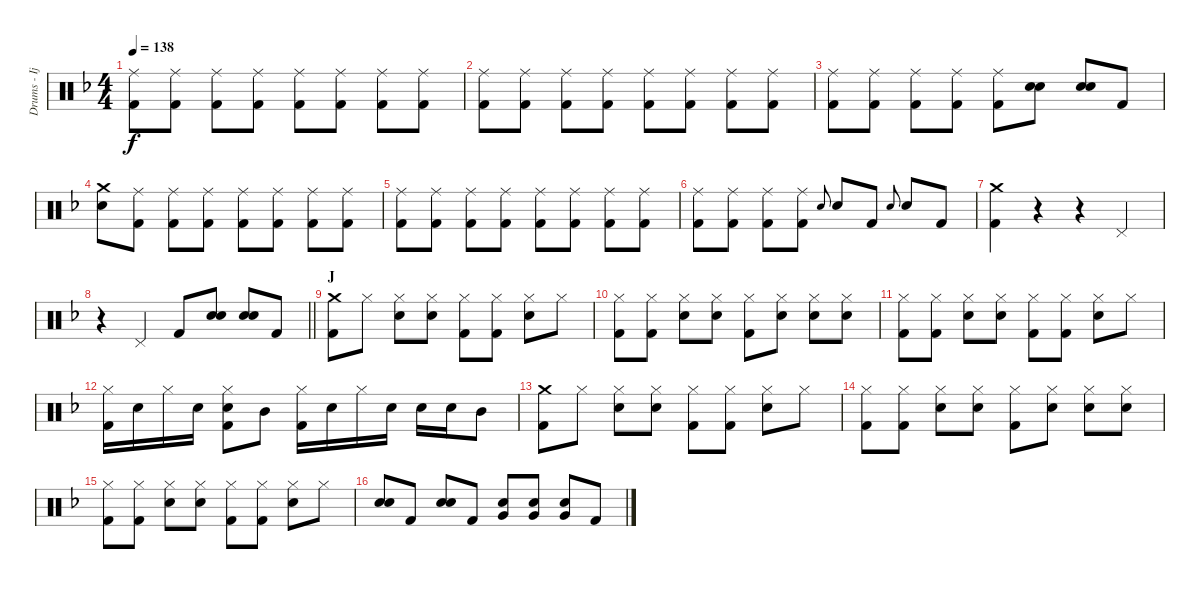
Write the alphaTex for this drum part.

\track ("Drums - Ijichi" "Drums - Ij") {instrument percussion}
\staff {score}
\articulation defaults
\ts (4 4)
\tempo 138
\clef neutral
\ks f
("Ride (middle)" "Kick (hit) 2").8{dy f} ("Ride (middle)" "Kick (hit) 2").8 ("Ride (middle)" "Kick (hit) 2").8 ("Ride (middle)" "Kick (hit) 2").8 ("Ride (middle)" "Kick (hit) 2").8 ("Ride (middle)" "Kick (hit) 2").8 ("Ride (middle)" "Kick (hit) 2").8 ("Ride (middle)" "Kick (hit) 2").8 |
("Ride (middle)" "Kick (hit) 2").8 ("Ride (middle)" "Kick (hit) 2").8 ("Ride (middle)" "Kick (hit) 2").8 ("Ride (middle)" "Kick (hit) 2").8 ("Ride (middle)" "Kick (hit) 2").8 ("Ride (middle)" "Kick (hit) 2").8 ("Ride (middle)" "Kick (hit) 2").8 ("Ride (middle)" "Kick (hit) 2").8 |
("Ride (middle)" "Kick (hit) 2").8 ("Ride (middle)" "Kick (hit) 2").8 ("Ride (middle)" "Kick (hit) 2").8 ("Ride (middle)" "Kick (hit) 2").8 ("Ride (middle)" "Kick (hit) 2").8 ("Electric Snare (hit)" "Electric Snare (hit)").8 ("Electric Snare (hit)" "Electric Snare (hit)").8 "Kick (hit) 2".8 |
("Crash medium (hit)" "Electric Snare (hit)").8 ("Ride (middle)" "Kick (hit) 2").8 ("Ride (middle)" "Kick (hit) 2").8 ("Ride (middle)" "Kick (hit) 2").8 ("Ride (middle)" "Kick (hit) 2").8 ("Ride (middle)" "Kick (hit) 2").8 ("Ride (middle)" "Kick (hit) 2").8 ("Ride (middle)" "Kick (hit) 2").8 |
("Ride (middle)" "Kick (hit) 2").8{volume 13} ("Ride (middle)" "Kick (hit) 2").8{volume 15} ("Ride (middle)" "Kick (hit) 2").8 ("Ride (middle)" "Kick (hit) 2").8 ("Ride (middle)" "Kick (hit) 2").8 ("Ride (middle)" "Kick (hit) 2").8 ("Ride (middle)" "Kick (hit) 2").8 ("Ride (middle)" "Kick (hit) 2").8 |
("Ride (middle)" "Kick (hit) 2").8 ("Ride (middle)" "Kick (hit) 2").8 ("Ride (middle)" "Kick (hit) 2").8 ("Ride (middle)" "Kick (hit) 2").8 "Electric Snare (hit)".8{gr onbeat} "Electric Snare (hit)".8{volume 13} "Kick (hit) 2".8 "Electric Snare (hit)".8{gr onbeat} "Electric Snare (hit)".8 "Kick (hit) 2".8 |
("Crash medium (hit)" "Kick (hit) 2").4 r.4 r.4 "Pedal Hi-Hat (hit)".4 |
\barLineRight lightlight
r.4 "Pedal Hi-Hat (hit)".4 "Kick (hit) 2".8 ("Electric Snare (hit)" "Electric Snare (hit)").8 ("Electric Snare (hit)" "Electric Snare (hit)").8 "Kick (hit) 2".8 |
\section ("" "J")
("Crash medium (hit)" "Kick (hit) 2").8 "Hi-Hat (closed)".8 ("Hi-Hat (closed)" "Electric Snare (hit)").8 ("Hi-Hat (closed)" "Electric Snare (hit)").8 ("Hi-Hat (closed)" "Kick (hit) 2").8 ("Hi-Hat (closed)" "Kick (hit) 2").8 ("Hi-Hat (closed)" "Electric Snare (hit)").8 "Hi-Hat (closed)".8 |
("Hi-Hat (closed)" "Kick (hit) 2").8 ("Hi-Hat (closed)" "Kick (hit) 2").8 ("Hi-Hat (closed)" "Electric Snare (hit)").8 ("Hi-Hat (closed)" "Electric Snare (hit)").8 ("Hi-Hat (closed)" "Kick (hit) 2").8 ("Hi-Hat (closed)" "Electric Snare (hit)").8 ("Hi-Hat (closed)" "Electric Snare (hit)").8 ("Hi-Hat (closed)" "Electric Snare (hit)").8 |
("Hi-Hat (closed)" "Kick (hit) 2").8 ("Hi-Hat (closed)" "Kick (hit) 2").8 ("Hi-Hat (closed)" "Electric Snare (hit)").8 ("Hi-Hat (closed)" "Electric Snare (hit)").8 ("Hi-Hat (closed)" "Kick (hit) 2").8 ("Hi-Hat (closed)" "Kick (hit) 2").8 ("Hi-Hat (closed)" "Electric Snare (hit)").8 "Hi-Hat (closed)".8 |
("Hi-Hat (closed)" "Kick (hit) 2").16 "Electric Snare (hit)".16 "Hi-Hat (closed)".16 "Electric Snare (hit)".16 ("Hi-Hat (closed)" "Electric Snare (hit)" "Kick (hit) 2").8 "Mid Tom (hit)".8 ("Hi-Hat (closed)" "Kick (hit) 2").16 "Electric Snare (hit)".16 "Hi-Hat (closed)".16 "Electric Snare (hit)".16 "Electric Snare (hit)".16 "Electric Snare (hit)".16 "Mid Tom (hit)".8 |
("Crash medium (hit)" "Kick (hit) 2").8 "Hi-Hat (closed)".8 ("Hi-Hat (closed)" "Electric Snare (hit)").8 ("Hi-Hat (closed)" "Electric Snare (hit)").8 ("Hi-Hat (closed)" "Kick (hit) 2").8 ("Hi-Hat (closed)" "Kick (hit) 2").8 ("Hi-Hat (closed)" "Electric Snare (hit)").8 "Hi-Hat (closed)".8 |
("Hi-Hat (closed)" "Kick (hit) 2").8 ("Hi-Hat (closed)" "Kick (hit) 2").8 ("Hi-Hat (closed)" "Electric Snare (hit)").8 ("Hi-Hat (closed)" "Electric Snare (hit)").8 ("Hi-Hat (closed)" "Kick (hit) 2").8 ("Hi-Hat (closed)" "Electric Snare (hit)").8 ("Hi-Hat (closed)" "Electric Snare (hit)").8 ("Hi-Hat (closed)" "Electric Snare (hit)").8 |
("Hi-Hat (closed)" "Kick (hit) 2").8 ("Hi-Hat (closed)" "Kick (hit) 2").8 ("Hi-Hat (closed)" "Electric Snare (hit)").8 ("Hi-Hat (closed)" "Electric Snare (hit)").8 ("Hi-Hat (closed)" "Kick (hit) 2").8 ("Hi-Hat (closed)" "Kick (hit) 2").8 ("Hi-Hat (closed)" "Electric Snare (hit)").8 "Hi-Hat (closed)".8 |
("Electric Snare (hit)" "Electric Snare (hit)").8 "Kick (hit) 2".8 ("Electric Snare (hit)" "Electric Snare (hit)").8 "Kick (hit) 2".8 ("Electric Snare (hit)" "Very Low Tom (hit)").8 ("Electric Snare (hit)" "Very Low Tom (hit)").8 ("Electric Snare (hit)" "Very Low Tom (hit)").8 "Kick (hit) 2".8
